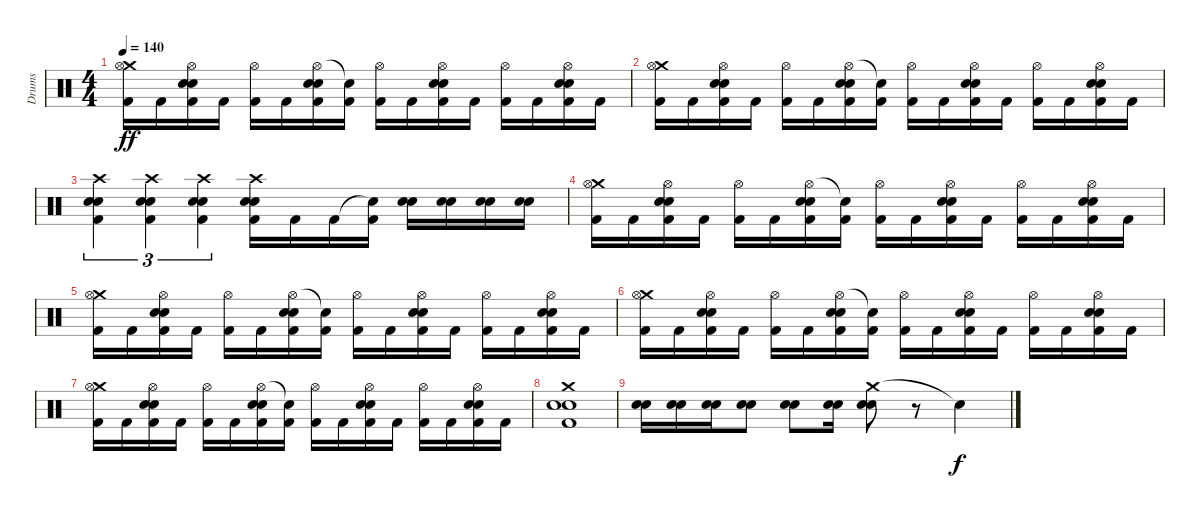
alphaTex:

\track ("Drums" "Drums") {instrument percussion}
\staff {score}
\articulation defaults
\ts (4 4)
\tempo 140
\clef neutral
\ks c
("Crash medium (hit)" "Hi-Hat (open)" "Kick (hit) 2").16{dy ff} "Kick (hit) 2".16 ("Hi-Hat (open)" "Electric Snare (hit)" "Electric Snare (hit)" "Kick (hit) 2").16 "Kick (hit) 2".16 ("Hi-Hat (open)" "Kick (hit) 2").16 "Kick (hit) 2".16 ("Hi-Hat (open)" "Electric Snare (hit)" "Electric Snare (hit)" "Kick (hit) 2").16 ("Snare (hit)"{t} "Kick (hit) 2").16 ("Hi-Hat (open)" "Kick (hit) 2").16 "Kick (hit) 2".16 ("Hi-Hat (open)" "Electric Snare (hit)" "Electric Snare (hit)" "Kick (hit) 2").16 "Kick (hit) 2".16 ("Hi-Hat (open)" "Kick (hit) 2").16 "Kick (hit) 2".16 ("Hi-Hat (open)" "Electric Snare (hit)" "Electric Snare (hit)" "Kick (hit) 2").16 "Kick (hit) 2".16 |
("Crash medium (hit)" "Hi-Hat (open)" "Kick (hit) 2").16 "Kick (hit) 2".16 ("Hi-Hat (open)" "Electric Snare (hit)" "Electric Snare (hit)" "Kick (hit) 2").16 "Kick (hit) 2".16 ("Hi-Hat (open)" "Kick (hit) 2").16 "Kick (hit) 2".16 ("Hi-Hat (open)" "Electric Snare (hit)" "Electric Snare (hit)" "Kick (hit) 2").16 ("Snare (hit)"{t} "Kick (hit) 2").16 ("Hi-Hat (open)" "Kick (hit) 2").16 "Kick (hit) 2".16 ("Hi-Hat (open)" "Electric Snare (hit)" "Electric Snare (hit)" "Kick (hit) 2").16 "Kick (hit) 2".16 ("Hi-Hat (open)" "Kick (hit) 2").16 "Kick (hit) 2".16 ("Hi-Hat (open)" "Electric Snare (hit)" "Electric Snare (hit)" "Kick (hit) 2").16 "Kick (hit) 2".16 |
("Crash high (hit)" "Electric Snare (hit)" "Electric Snare (hit)" "Kick (hit) 2").4{tu (3 2)} ("Crash high (hit)" "Electric Snare (hit)" "Electric Snare (hit)" "Kick (hit) 2").4{tu (3 2)} ("Crash high (hit)" "Electric Snare (hit)" "Electric Snare (hit)" "Kick (hit) 2").4{tu (3 2)} ("Crash high (hit)" "Electric Snare (hit)" "Electric Snare (hit)" "Kick (hit) 2").16 "Kick (hit) 2".16 "Kick (hit) 2".16 ("Snare (hit)"{t} "Kick (hit) 2").16 ("Electric Snare (hit)" "Electric Snare (hit)").16 ("Electric Snare (hit)" "Electric Snare (hit)").16 ("Electric Snare (hit)" "Electric Snare (hit)").16 ("Electric Snare (hit)" "Electric Snare (hit)").16 |
("Crash medium (hit)" "Hi-Hat (open)" "Kick (hit) 2").16 "Kick (hit) 2".16 ("Hi-Hat (open)" "Electric Snare (hit)" "Electric Snare (hit)" "Kick (hit) 2").16 "Kick (hit) 2".16 ("Hi-Hat (open)" "Kick (hit) 2").16 "Kick (hit) 2".16 ("Hi-Hat (open)" "Electric Snare (hit)" "Electric Snare (hit)" "Kick (hit) 2").16 ("Snare (hit)"{t} "Kick (hit) 2").16 ("Hi-Hat (open)" "Kick (hit) 2").16 "Kick (hit) 2".16 ("Hi-Hat (open)" "Electric Snare (hit)" "Electric Snare (hit)" "Kick (hit) 2").16 "Kick (hit) 2".16 ("Hi-Hat (open)" "Kick (hit) 2").16 "Kick (hit) 2".16 ("Hi-Hat (open)" "Electric Snare (hit)" "Electric Snare (hit)" "Kick (hit) 2").16 "Kick (hit) 2".16 |
("Crash medium (hit)" "Hi-Hat (open)" "Kick (hit) 2").16 "Kick (hit) 2".16 ("Hi-Hat (open)" "Electric Snare (hit)" "Electric Snare (hit)" "Kick (hit) 2").16 "Kick (hit) 2".16 ("Hi-Hat (open)" "Kick (hit) 2").16 "Kick (hit) 2".16 ("Hi-Hat (open)" "Electric Snare (hit)" "Electric Snare (hit)" "Kick (hit) 2").16 ("Snare (hit)"{t} "Kick (hit) 2").16 ("Hi-Hat (open)" "Kick (hit) 2").16 "Kick (hit) 2".16 ("Hi-Hat (open)" "Electric Snare (hit)" "Electric Snare (hit)" "Kick (hit) 2").16 "Kick (hit) 2".16 ("Hi-Hat (open)" "Kick (hit) 2").16 "Kick (hit) 2".16 ("Hi-Hat (open)" "Electric Snare (hit)" "Electric Snare (hit)" "Kick (hit) 2").16 "Kick (hit) 2".16 |
("Crash medium (hit)" "Hi-Hat (open)" "Kick (hit) 2").16 "Kick (hit) 2".16 ("Hi-Hat (open)" "Electric Snare (hit)" "Electric Snare (hit)" "Kick (hit) 2").16 "Kick (hit) 2".16 ("Hi-Hat (open)" "Kick (hit) 2").16 "Kick (hit) 2".16 ("Hi-Hat (open)" "Electric Snare (hit)" "Electric Snare (hit)" "Kick (hit) 2").16 ("Snare (hit)"{t} "Kick (hit) 2").16 ("Hi-Hat (open)" "Kick (hit) 2").16 "Kick (hit) 2".16 ("Hi-Hat (open)" "Electric Snare (hit)" "Electric Snare (hit)" "Kick (hit) 2").16 "Kick (hit) 2".16 ("Hi-Hat (open)" "Kick (hit) 2").16 "Kick (hit) 2".16 ("Hi-Hat (open)" "Electric Snare (hit)" "Electric Snare (hit)" "Kick (hit) 2").16 "Kick (hit) 2".16 |
("Crash medium (hit)" "Hi-Hat (open)" "Kick (hit) 2").16 "Kick (hit) 2".16 ("Hi-Hat (open)" "Electric Snare (hit)" "Electric Snare (hit)" "Kick (hit) 2").16 "Kick (hit) 2".16 ("Hi-Hat (open)" "Kick (hit) 2").16 "Kick (hit) 2".16 ("Hi-Hat (open)" "Electric Snare (hit)" "Electric Snare (hit)" "Kick (hit) 2").16 ("Snare (hit)"{t} "Kick (hit) 2").16 ("Hi-Hat (open)" "Kick (hit) 2").16 "Kick (hit) 2".16 ("Hi-Hat (open)" "Electric Snare (hit)" "Electric Snare (hit)" "Kick (hit) 2").16 "Kick (hit) 2".16 ("Hi-Hat (open)" "Kick (hit) 2").16 "Kick (hit) 2".16 ("Hi-Hat (open)" "Electric Snare (hit)" "Electric Snare (hit)" "Kick (hit) 2").16 "Kick (hit) 2".16 |
("Crash medium (hit)" "Electric Snare (hit)" "Electric Snare (hit)" "Kick (hit) 2").1 |
("Electric Snare (hit)" "Electric Snare (hit)").16 ("Electric Snare (hit)" "Electric Snare (hit)").16 ("Electric Snare (hit)" "Electric Snare (hit)").16 ("Electric Snare (hit)" "Electric Snare (hit)").8 ("Electric Snare (hit)" "Electric Snare (hit)").8 ("Electric Snare (hit)" "Electric Snare (hit)").16 ("Crash medium (hit)" "Electric Snare (hit)" "Electric Snare (hit)").8 r.8 "Snare (hit)"{t}.4{dy f}
